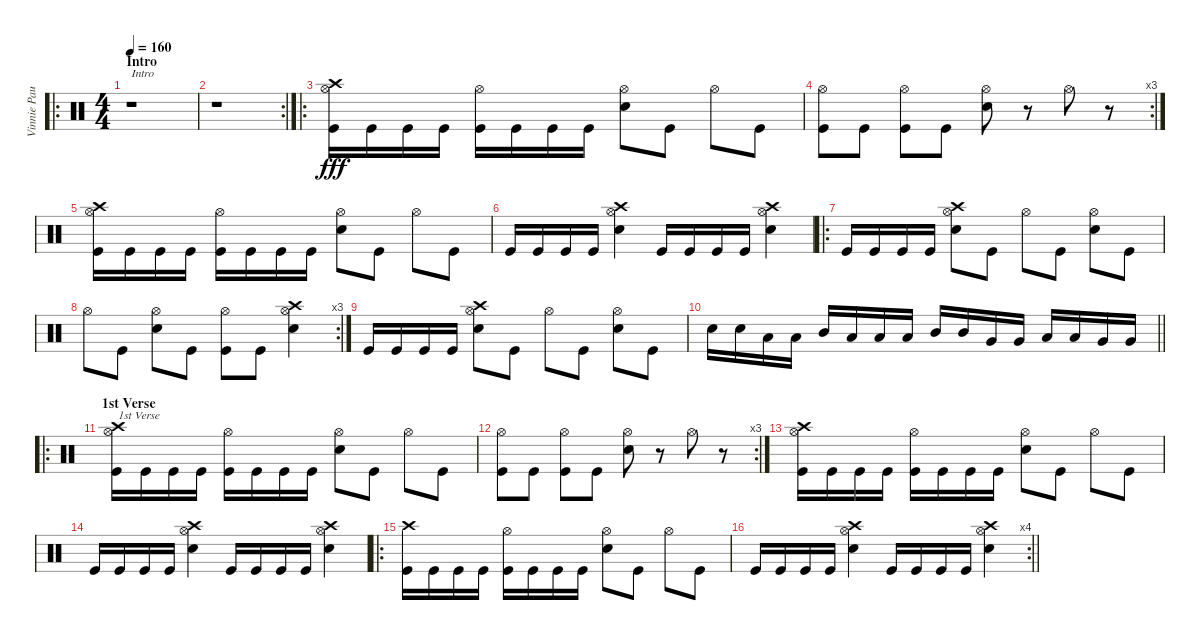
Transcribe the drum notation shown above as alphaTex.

\track ("Vinnie Paul" "Vinnie Pau") {instrument percussion}
\staff {score}
\articulation defaults
\ro
\ts (4 4)
\section ("" "Intro")
\tempo 160
\clef neutral
\ks c
r.1{txt "Intro" dy fff} |
\rc 2
r.1 |
\ro
("Kick (hit)" "Crash high (hit)" "Hi-Hat (open)").16 "Kick (hit)".16 "Kick (hit)".16 "Kick (hit)".16 ("Kick (hit)" "Hi-Hat (open)").16 "Kick (hit)".16 "Kick (hit)".16 "Kick (hit)".16 ("Electric Snare (hit)" "Hi-Hat (open)").8 "Kick (hit)".8 "Hi-Hat (open)".8 "Kick (hit)".8 |
\rc 3
("Kick (hit)" "Hi-Hat (open)").8 "Kick (hit)".8 ("Kick (hit)" "Hi-Hat (open)").8 "Kick (hit)".8 ("Electric Snare (hit)" "Hi-Hat (open)").8 r.8 "Hi-Hat (open)".8 r.8 |
("Kick (hit)" "Crash high (hit)" "Hi-Hat (open)").16 "Kick (hit)".16 "Kick (hit)".16 "Kick (hit)".16 ("Kick (hit)" "Hi-Hat (open)").16 "Kick (hit)".16 "Kick (hit)".16 "Kick (hit)".16 ("Electric Snare (hit)" "Hi-Hat (open)").8 "Kick (hit)".8 "Hi-Hat (open)".8 "Kick (hit)".8 |
"Kick (hit)".16 "Kick (hit)".16 "Kick (hit)".16 "Kick (hit)".16 ("Electric Snare (hit)" "Crash high (hit)" "Hi-Hat (open)").4 "Kick (hit)".16 "Kick (hit)".16 "Kick (hit)".16 "Kick (hit)".16 ("Electric Snare (hit)" "Crash high (hit)" "Hi-Hat (open)").4 |
\ro "Kick (hit)".16 "Kick (hit)".16 "Kick (hit)".16 "Kick (hit)".16
("Electric Snare (hit)" "Crash high (hit)" "Hi-Hat (open)").8 "Kick (hit)".8 "Hi-Hat (open)".8 "Kick (hit)".8 ("Electric Snare (hit)" "Hi-Hat (open)").8 "Kick (hit)".8 |
\rc 3 "Hi-Hat (open)".8 "Kick (hit)".8
("Electric Snare (hit)" "Hi-Hat (open)").8 "Kick (hit)".8 ("Kick (hit)" "Hi-Hat (open)").8 "Kick (hit)".8 ("Electric Snare (hit)" "Crash high (hit)" "Hi-Hat (open)").4 |
"Kick (hit)".16 "Kick (hit)".16 "Kick (hit)".16 "Kick (hit)".16 ("Electric Snare (hit)" "Crash high (hit)" "Hi-Hat (open)").8 "Kick (hit)".8 "Hi-Hat (open)".8 "Kick (hit)".8 ("Electric Snare (hit)" "Hi-Hat (open)").8 "Kick (hit)".8 |
\barLineRight lightlight "Electric Snare (hit)".16 "Electric Snare (hit)".16 "Low Tom (hit)".16 "Low Tom (hit)".16 "Mid Tom (hit)".16 "Low Tom (hit)".16 "Low Tom (hit)".16 "Low Tom (hit)".16 "Mid Tom (hit)".16 "Mid Tom (hit)".16 "Very Low Tom (hit)".16 "Very Low Tom (hit)".16 "Low Tom (hit)".16 "Low Tom (hit)".16 "Very Low Tom (hit)".16 "Very Low Tom (hit)".16
|
\ro
\section ("" "1st Verse")
("Kick (hit)" "Crash high (hit)" "Hi-Hat (open)").16{txt "1st Verse"} "Kick (hit)".16 "Kick (hit)".16 "Kick (hit)".16 ("Kick (hit)" "Hi-Hat (open)").16 "Kick (hit)".16 "Kick (hit)".16 "Kick (hit)".16 ("Electric Snare (hit)" "Hi-Hat (open)").8 "Kick (hit)".8 "Hi-Hat (open)".8 "Kick (hit)".8 |
\rc 3
("Kick (hit)" "Hi-Hat (open)").8 "Kick (hit)".8 ("Kick (hit)" "Hi-Hat (open)").8 "Kick (hit)".8 ("Electric Snare (hit)" "Hi-Hat (open)").8 r.8 "Hi-Hat (open)".8 r.8 |
("Kick (hit)" "Crash high (hit)" "Hi-Hat (open)").16 "Kick (hit)".16 "Kick (hit)".16 "Kick (hit)".16 ("Kick (hit)" "Hi-Hat (open)").16 "Kick (hit)".16 "Kick (hit)".16 "Kick (hit)".16 ("Electric Snare (hit)" "Hi-Hat (open)").8 "Kick (hit)".8 "Hi-Hat (open)".8 "Kick (hit)".8 |
"Kick (hit)".16 "Kick (hit)".16 "Kick (hit)".16 "Kick (hit)".16 ("Electric Snare (hit)" "Crash high (hit)" "Hi-Hat (open)").4 "Kick (hit)".16 "Kick (hit)".16 "Kick (hit)".16 "Kick (hit)".16 ("Electric Snare (hit)" "Crash high (hit)" "Hi-Hat (open)").4 |
\ro
("Kick (hit)" "Crash high (hit)").16 "Kick (hit)".16 "Kick (hit)".16 "Kick (hit)".16 ("Kick (hit)" "Hi-Hat (open)").16 "Kick (hit)".16 "Kick (hit)".16 "Kick (hit)".16 ("Electric Snare (hit)" "Hi-Hat (open)").8 "Kick (hit)".8 "Hi-Hat (open)".8 "Kick (hit)".8 |
\rc 4
\barLineRight lightlight "Kick (hit)".16 "Kick (hit)".16 "Kick (hit)".16 "Kick (hit)".16
("Electric Snare (hit)" "Crash high (hit)" "Hi-Hat (open)").4 "Kick (hit)".16 "Kick (hit)".16 "Kick (hit)".16 "Kick (hit)".16 ("Electric Snare (hit)" "Crash high (hit)" "Hi-Hat (open)").4
